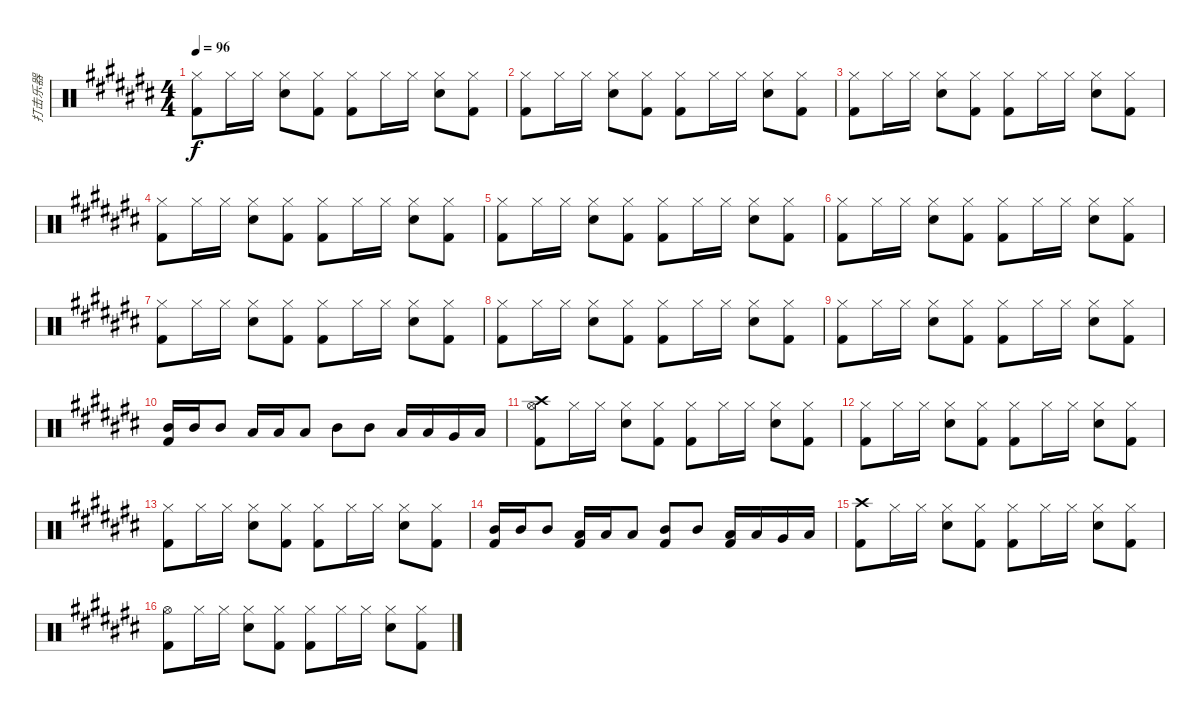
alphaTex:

\track ("打击乐器" "打击乐器") {instrument percussion}
\staff {score}
\articulation defaults
\ts (4 4)
\tempo 96
\clef neutral
\ks c#
("Hi-Hat (closed)" "Kick (hit) 2").8{dy f} "Hi-Hat (closed)".16 "Hi-Hat (closed)".16 ("Hi-Hat (closed)" "Snare (hit) 2").8 ("Hi-Hat (closed)" "Kick (hit) 2").8 ("Hi-Hat (closed)" "Kick (hit) 2").8 "Hi-Hat (closed)".16 "Hi-Hat (closed)".16 ("Hi-Hat (closed)" "Snare (hit) 2").8 ("Hi-Hat (closed)" "Kick (hit) 2").8 |
("Hi-Hat (closed)" "Kick (hit) 2").8 "Hi-Hat (closed)".16 "Hi-Hat (closed)".16 ("Hi-Hat (closed)" "Snare (hit) 2").8 ("Hi-Hat (closed)" "Kick (hit) 2").8 ("Hi-Hat (closed)" "Kick (hit) 2").8 "Hi-Hat (closed)".16 "Hi-Hat (closed)".16 ("Hi-Hat (closed)" "Snare (hit) 2").8 ("Hi-Hat (closed)" "Kick (hit) 2").8 |
("Hi-Hat (closed)" "Kick (hit) 2").8 "Hi-Hat (closed)".16 "Hi-Hat (closed)".16 ("Hi-Hat (closed)" "Snare (hit) 2").8 ("Hi-Hat (closed)" "Kick (hit) 2").8 ("Hi-Hat (closed)" "Kick (hit) 2").8 "Hi-Hat (closed)".16 "Hi-Hat (closed)".16 ("Hi-Hat (closed)" "Snare (hit) 2").8 ("Hi-Hat (closed)" "Kick (hit) 2").8 |
("Hi-Hat (closed)" "Kick (hit) 2").8 "Hi-Hat (closed)".16 "Hi-Hat (closed)".16 ("Hi-Hat (closed)" "Snare (hit) 2").8 ("Hi-Hat (closed)" "Kick (hit) 2").8 ("Hi-Hat (closed)" "Kick (hit) 2").8 "Hi-Hat (closed)".16 "Hi-Hat (closed)".16 ("Hi-Hat (closed)" "Snare (hit) 2").8 ("Hi-Hat (closed)" "Kick (hit) 2").8 |
("Hi-Hat (closed)" "Kick (hit) 2").8 "Hi-Hat (closed)".16 "Hi-Hat (closed)".16 ("Hi-Hat (closed)" "Snare (hit) 2").8 ("Hi-Hat (closed)" "Kick (hit) 2").8 ("Hi-Hat (closed)" "Kick (hit) 2").8 "Hi-Hat (closed)".16 "Hi-Hat (closed)".16 ("Hi-Hat (closed)" "Snare (hit) 2").8 ("Hi-Hat (closed)" "Kick (hit) 2").8 |
("Hi-Hat (closed)" "Kick (hit) 2").8 "Hi-Hat (closed)".16 "Hi-Hat (closed)".16 ("Hi-Hat (closed)" "Snare (hit) 2").8 ("Hi-Hat (closed)" "Kick (hit) 2").8 ("Hi-Hat (closed)" "Kick (hit) 2").8 "Hi-Hat (closed)".16 "Hi-Hat (closed)".16 ("Hi-Hat (closed)" "Snare (hit) 2").8 ("Hi-Hat (closed)" "Kick (hit) 2").8 |
("Hi-Hat (closed)" "Kick (hit) 2").8 "Hi-Hat (closed)".16 "Hi-Hat (closed)".16 ("Hi-Hat (closed)" "Snare (hit) 2").8 ("Hi-Hat (closed)" "Kick (hit) 2").8 ("Hi-Hat (closed)" "Kick (hit) 2").8 "Hi-Hat (closed)".16 "Hi-Hat (closed)".16 ("Hi-Hat (closed)" "Snare (hit) 2").8 ("Hi-Hat (closed)" "Kick (hit) 2").8 |
("Hi-Hat (closed)" "Kick (hit) 2").8 "Hi-Hat (closed)".16 "Hi-Hat (closed)".16 ("Hi-Hat (closed)" "Snare (hit) 2").8 ("Hi-Hat (closed)" "Kick (hit) 2").8 ("Hi-Hat (closed)" "Kick (hit) 2").8 "Hi-Hat (closed)".16 "Hi-Hat (closed)".16 ("Hi-Hat (closed)" "Snare (hit) 2").8 ("Hi-Hat (closed)" "Kick (hit) 2").8 |
("Hi-Hat (closed)" "Kick (hit) 2").8 "Hi-Hat (closed)".16 "Hi-Hat (closed)".16 ("Hi-Hat (closed)" "Snare (hit) 2").8 ("Hi-Hat (closed)" "Kick (hit) 2").8 ("Hi-Hat (closed)" "Kick (hit) 2").8 "Hi-Hat (closed)".16 "Hi-Hat (closed)".16 ("Hi-Hat (closed)" "Snare (hit) 2").8 ("Hi-Hat (closed)" "Kick (hit) 2").8 |
("Mid Tom (hit)" "Kick (hit) 2").16 "Mid Tom (hit)".16 "Mid Tom (hit)".8 "Low Tom (hit)".16 "Low Tom (hit)".16 "Low Tom (hit)".8 "Mid Tom (hit)".8 "Mid Tom (hit)".8 "Low Tom (hit)".16 "Low Tom (hit)".16 "Very Low Tom (hit)".16 "Low Floor Tom (hit)".16 |
("Crash high (hit)" "Hi-Hat (open)" "Kick (hit) 2").8 "Hi-Hat (closed)".16 "Hi-Hat (closed)".16 ("Hi-Hat (closed)" "Snare (hit) 2").8 ("Hi-Hat (closed)" "Kick (hit) 2").8 ("Hi-Hat (closed)" "Kick (hit) 2").8 "Hi-Hat (closed)".16 "Hi-Hat (closed)".16 ("Hi-Hat (closed)" "Snare (hit) 2").8 ("Hi-Hat (closed)" "Kick (hit) 2").8 |
("Hi-Hat (closed)" "Kick (hit) 2").8 "Hi-Hat (closed)".16 "Hi-Hat (closed)".16 ("Hi-Hat (closed)" "Snare (hit) 2").8 ("Hi-Hat (closed)" "Kick (hit) 2").8 ("Hi-Hat (closed)" "Kick (hit) 2").8 "Hi-Hat (closed)".16 "Hi-Hat (closed)".16 ("Hi-Hat (closed)" "Snare (hit) 2").8 ("Hi-Hat (closed)" "Kick (hit) 2").8 |
("Hi-Hat (closed)" "Kick (hit) 2").8 "Hi-Hat (closed)".16 "Hi-Hat (closed)".16 ("Hi-Hat (closed)" "Snare (hit) 2").8 ("Hi-Hat (closed)" "Kick (hit) 2").8 ("Hi-Hat (closed)" "Kick (hit) 2").8 "Hi-Hat (closed)".16 "Hi-Hat (closed)".16 ("Hi-Hat (closed)" "Snare (hit) 2").8 ("Hi-Hat (closed)" "Kick (hit) 2").8 |
("Mid Tom (hit)" "Kick (hit) 2").16 "Mid Tom (hit)".16 "Mid Tom (hit)".8 ("Low Tom (hit)" "Kick (hit) 2").16 "Low Tom (hit)".16 "Low Tom (hit)".8 ("Mid Tom (hit)" "Kick (hit) 2").8 "Mid Tom (hit)".8 ("Low Tom (hit)" "Kick (hit) 2").16 "Low Tom (hit)".16 "Very Low Tom (hit)".16 "Low Floor Tom (hit)".16 |
("Crash high (hit)" "Kick (hit) 2").8 "Hi-Hat (closed)".16 "Hi-Hat (closed)".16 ("Hi-Hat (closed)" "Snare (hit) 2").8 ("Hi-Hat (closed)" "Kick (hit) 2").8 ("Hi-Hat (closed)" "Kick (hit) 2").8 "Hi-Hat (closed)".16 "Hi-Hat (closed)".16 ("Hi-Hat (closed)" "Snare (hit) 2").8 ("Hi-Hat (closed)" "Kick (hit) 2").8 |
("Hi-Hat (open)" "Kick (hit) 2").8 "Hi-Hat (closed)".16 "Hi-Hat (closed)".16 ("Hi-Hat (closed)" "Snare (hit) 2").8 ("Hi-Hat (closed)" "Kick (hit) 2").8 ("Hi-Hat (closed)" "Kick (hit) 2").8 "Hi-Hat (closed)".16 "Hi-Hat (closed)".16 ("Hi-Hat (closed)" "Snare (hit) 2").8 ("Hi-Hat (closed)" "Kick (hit) 2").8
